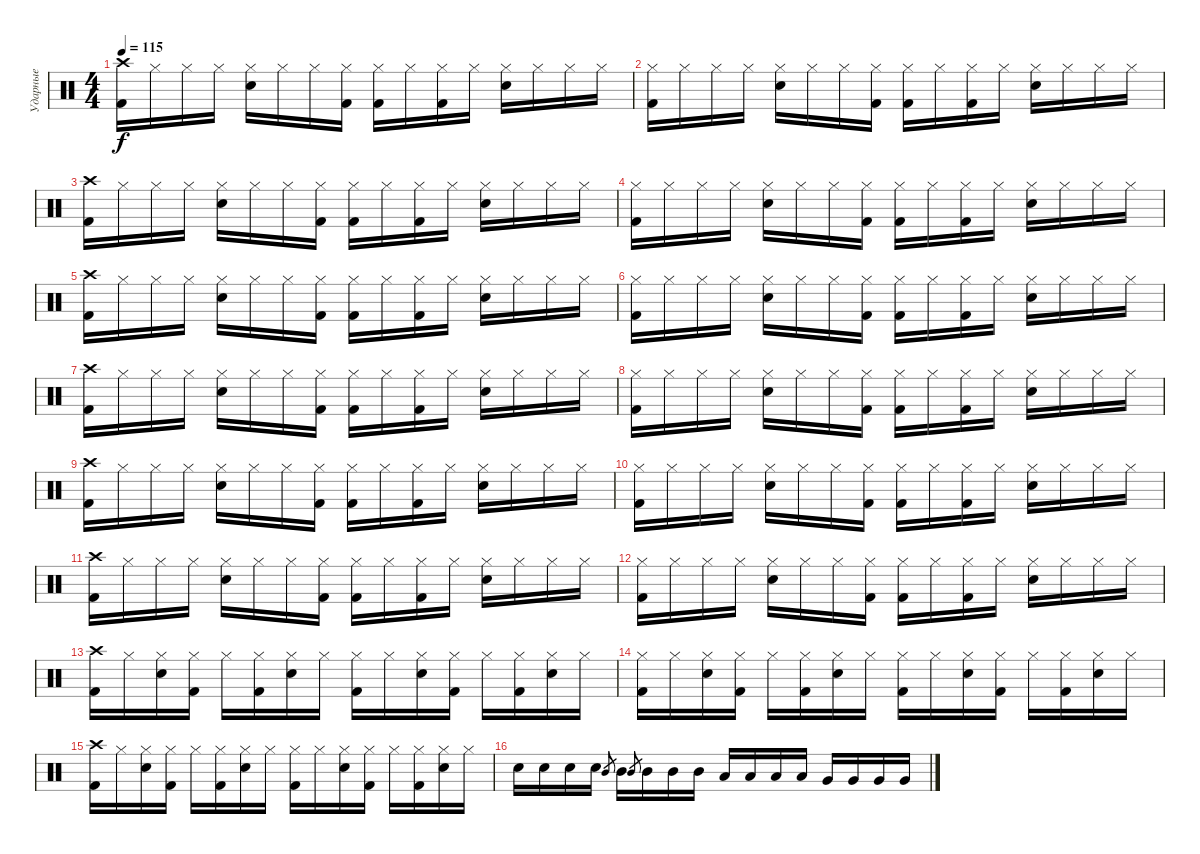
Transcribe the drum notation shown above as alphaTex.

\track ("Ударные" "Ударные") {instrument percussion}
\staff {score}
\articulation defaults
\ts (4 4)
\tempo 115
\clef neutral
\ks c
("Kick (hit) 2" "Crash high (hit)").16{dy f} "Hi-Hat (closed)".16 "Hi-Hat (closed)".16 "Hi-Hat (closed)".16 ("Electric Snare (hit)" "Hi-Hat (closed)").16 "Hi-Hat (closed)".16 "Hi-Hat (closed)".16 ("Kick (hit) 2" "Hi-Hat (closed)").16 ("Kick (hit) 2" "Hi-Hat (closed)").16 "Hi-Hat (closed)".16 ("Kick (hit) 2" "Hi-Hat (closed)").16 "Hi-Hat (closed)".16 ("Electric Snare (hit)" "Hi-Hat (closed)").16 "Hi-Hat (closed)".16 "Hi-Hat (closed)".16 "Hi-Hat (closed)".16 |
("Kick (hit) 2" "Hi-Hat (closed)").16 "Hi-Hat (closed)".16 "Hi-Hat (closed)".16 "Hi-Hat (closed)".16 ("Electric Snare (hit)" "Hi-Hat (closed)").16 "Hi-Hat (closed)".16 "Hi-Hat (closed)".16 ("Kick (hit) 2" "Hi-Hat (closed)").16 ("Kick (hit) 2" "Hi-Hat (closed)").16 "Hi-Hat (closed)".16 ("Kick (hit) 2" "Hi-Hat (closed)").16 "Hi-Hat (closed)".16 ("Electric Snare (hit)" "Hi-Hat (closed)").16 "Hi-Hat (closed)".16 "Hi-Hat (closed)".16 "Hi-Hat (closed)".16 |
("Kick (hit) 2" "Crash high (hit)").16 "Hi-Hat (closed)".16 "Hi-Hat (closed)".16 "Hi-Hat (closed)".16 ("Electric Snare (hit)" "Hi-Hat (closed)").16 "Hi-Hat (closed)".16 "Hi-Hat (closed)".16 ("Kick (hit) 2" "Hi-Hat (closed)").16 ("Kick (hit) 2" "Hi-Hat (closed)").16 "Hi-Hat (closed)".16 ("Kick (hit) 2" "Hi-Hat (closed)").16 "Hi-Hat (closed)".16 ("Electric Snare (hit)" "Hi-Hat (closed)").16 "Hi-Hat (closed)".16 "Hi-Hat (closed)".16 "Hi-Hat (closed)".16 |
("Kick (hit) 2" "Hi-Hat (closed)").16 "Hi-Hat (closed)".16 "Hi-Hat (closed)".16 "Hi-Hat (closed)".16 ("Electric Snare (hit)" "Hi-Hat (closed)").16 "Hi-Hat (closed)".16 "Hi-Hat (closed)".16 ("Kick (hit) 2" "Hi-Hat (closed)").16 ("Kick (hit) 2" "Hi-Hat (closed)").16 "Hi-Hat (closed)".16 ("Kick (hit) 2" "Hi-Hat (closed)").16 "Hi-Hat (closed)".16 ("Electric Snare (hit)" "Hi-Hat (closed)").16 "Hi-Hat (closed)".16 "Hi-Hat (closed)".16 "Hi-Hat (closed)".16 |
("Kick (hit) 2" "Crash high (hit)").16 "Hi-Hat (closed)".16 "Hi-Hat (closed)".16 "Hi-Hat (closed)".16 ("Electric Snare (hit)" "Hi-Hat (closed)").16 "Hi-Hat (closed)".16 "Hi-Hat (closed)".16 ("Kick (hit) 2" "Hi-Hat (closed)").16 ("Kick (hit) 2" "Hi-Hat (closed)").16 "Hi-Hat (closed)".16 ("Kick (hit) 2" "Hi-Hat (closed)").16 "Hi-Hat (closed)".16 ("Electric Snare (hit)" "Hi-Hat (closed)").16 "Hi-Hat (closed)".16 "Hi-Hat (closed)".16 "Hi-Hat (closed)".16 |
("Kick (hit) 2" "Hi-Hat (closed)").16 "Hi-Hat (closed)".16 "Hi-Hat (closed)".16 "Hi-Hat (closed)".16 ("Electric Snare (hit)" "Hi-Hat (closed)").16 "Hi-Hat (closed)".16 "Hi-Hat (closed)".16 ("Kick (hit) 2" "Hi-Hat (closed)").16 ("Kick (hit) 2" "Hi-Hat (closed)").16 "Hi-Hat (closed)".16 ("Kick (hit) 2" "Hi-Hat (closed)").16 "Hi-Hat (closed)".16 ("Electric Snare (hit)" "Hi-Hat (closed)").16 "Hi-Hat (closed)".16 "Hi-Hat (closed)".16 "Hi-Hat (closed)".16 |
("Kick (hit) 2" "Crash high (hit)").16 "Hi-Hat (closed)".16 "Hi-Hat (closed)".16 "Hi-Hat (closed)".16 ("Electric Snare (hit)" "Hi-Hat (closed)").16 "Hi-Hat (closed)".16 "Hi-Hat (closed)".16 ("Kick (hit) 2" "Hi-Hat (closed)").16 ("Kick (hit) 2" "Hi-Hat (closed)").16 "Hi-Hat (closed)".16 ("Kick (hit) 2" "Hi-Hat (closed)").16 "Hi-Hat (closed)".16 ("Electric Snare (hit)" "Hi-Hat (closed)").16 "Hi-Hat (closed)".16 "Hi-Hat (closed)".16 "Hi-Hat (closed)".16 |
("Kick (hit) 2" "Hi-Hat (closed)").16 "Hi-Hat (closed)".16 "Hi-Hat (closed)".16 "Hi-Hat (closed)".16 ("Electric Snare (hit)" "Hi-Hat (closed)").16 "Hi-Hat (closed)".16 "Hi-Hat (closed)".16 ("Kick (hit) 2" "Hi-Hat (closed)").16 ("Kick (hit) 2" "Hi-Hat (closed)").16 "Hi-Hat (closed)".16 ("Kick (hit) 2" "Hi-Hat (closed)").16 "Hi-Hat (closed)".16 ("Electric Snare (hit)" "Hi-Hat (closed)").16 "Hi-Hat (closed)".16 "Hi-Hat (closed)".16 "Hi-Hat (closed)".16 |
("Kick (hit) 2" "Crash high (hit)").16 "Hi-Hat (closed)".16 "Hi-Hat (closed)".16 "Hi-Hat (closed)".16 ("Electric Snare (hit)" "Hi-Hat (closed)").16 "Hi-Hat (closed)".16 "Hi-Hat (closed)".16 ("Kick (hit) 2" "Hi-Hat (closed)").16 ("Kick (hit) 2" "Hi-Hat (closed)").16 "Hi-Hat (closed)".16 ("Kick (hit) 2" "Hi-Hat (closed)").16 "Hi-Hat (closed)".16 ("Electric Snare (hit)" "Hi-Hat (closed)").16 "Hi-Hat (closed)".16 "Hi-Hat (closed)".16 "Hi-Hat (closed)".16 |
("Kick (hit) 2" "Hi-Hat (closed)").16 "Hi-Hat (closed)".16 "Hi-Hat (closed)".16 "Hi-Hat (closed)".16 ("Electric Snare (hit)" "Hi-Hat (closed)").16 "Hi-Hat (closed)".16 "Hi-Hat (closed)".16 ("Kick (hit) 2" "Hi-Hat (closed)").16 ("Kick (hit) 2" "Hi-Hat (closed)").16 "Hi-Hat (closed)".16 ("Kick (hit) 2" "Hi-Hat (closed)").16 "Hi-Hat (closed)".16 ("Electric Snare (hit)" "Hi-Hat (closed)").16 "Hi-Hat (closed)".16 "Hi-Hat (closed)".16 "Hi-Hat (closed)".16 |
("Kick (hit) 2" "Crash high (hit)").16 "Hi-Hat (closed)".16 "Hi-Hat (closed)".16 "Hi-Hat (closed)".16 ("Electric Snare (hit)" "Hi-Hat (closed)").16 "Hi-Hat (closed)".16 "Hi-Hat (closed)".16 ("Kick (hit) 2" "Hi-Hat (closed)").16 ("Kick (hit) 2" "Hi-Hat (closed)").16 "Hi-Hat (closed)".16 ("Kick (hit) 2" "Hi-Hat (closed)").16 "Hi-Hat (closed)".16 ("Electric Snare (hit)" "Hi-Hat (closed)").16 "Hi-Hat (closed)".16 "Hi-Hat (closed)".16 "Hi-Hat (closed)".16 |
("Kick (hit) 2" "Hi-Hat (closed)").16 "Hi-Hat (closed)".16 "Hi-Hat (closed)".16 "Hi-Hat (closed)".16 ("Electric Snare (hit)" "Hi-Hat (closed)").16 "Hi-Hat (closed)".16 "Hi-Hat (closed)".16 ("Kick (hit) 2" "Hi-Hat (closed)").16 ("Kick (hit) 2" "Hi-Hat (closed)").16 "Hi-Hat (closed)".16 ("Kick (hit) 2" "Hi-Hat (closed)").16 "Hi-Hat (closed)".16 ("Electric Snare (hit)" "Hi-Hat (closed)").16 "Hi-Hat (closed)".16 "Hi-Hat (closed)".16 "Hi-Hat (closed)".16 |
("Kick (hit) 2" "Crash high (hit)").16 "Hi-Hat (closed)".16 ("Electric Snare (hit)" "Hi-Hat (closed)").16 ("Kick (hit) 2" "Hi-Hat (closed)").16 "Hi-Hat (closed)".16 ("Kick (hit) 2" "Hi-Hat (closed)").16 ("Electric Snare (hit)" "Hi-Hat (closed)").16 "Hi-Hat (closed)".16 ("Kick (hit) 2" "Hi-Hat (closed)").16 "Hi-Hat (closed)".16 ("Electric Snare (hit)" "Hi-Hat (closed)").16 ("Kick (hit) 2" "Hi-Hat (closed)").16 "Hi-Hat (closed)".16 ("Kick (hit) 2" "Hi-Hat (closed)").16 ("Electric Snare (hit)" "Hi-Hat (closed)").16 "Hi-Hat (closed)".16 |
("Kick (hit) 2" "Hi-Hat (closed)").16 "Hi-Hat (closed)".16 ("Electric Snare (hit)" "Hi-Hat (closed)").16 ("Kick (hit) 2" "Hi-Hat (closed)").16 "Hi-Hat (closed)".16 ("Kick (hit) 2" "Hi-Hat (closed)").16 ("Electric Snare (hit)" "Hi-Hat (closed)").16 "Hi-Hat (closed)".16 ("Kick (hit) 2" "Hi-Hat (closed)").16 "Hi-Hat (closed)".16 ("Electric Snare (hit)" "Hi-Hat (closed)").16 ("Kick (hit) 2" "Hi-Hat (closed)").16 "Hi-Hat (closed)".16 ("Kick (hit) 2" "Hi-Hat (closed)").16 ("Electric Snare (hit)" "Hi-Hat (closed)").16 "Hi-Hat (closed)".16 |
("Kick (hit) 2" "Crash high (hit)").16 "Hi-Hat (closed)".16 ("Electric Snare (hit)" "Hi-Hat (closed)").16 ("Kick (hit) 2" "Hi-Hat (closed)").16 "Hi-Hat (closed)".16 ("Kick (hit) 2" "Hi-Hat (closed)").16 ("Electric Snare (hit)" "Hi-Hat (closed)").16 "Hi-Hat (closed)".16 ("Kick (hit) 2" "Hi-Hat (closed)").16 "Hi-Hat (closed)".16 ("Electric Snare (hit)" "Hi-Hat (closed)").16 ("Kick (hit) 2" "Hi-Hat (closed)").16 "Hi-Hat (closed)".16 ("Kick (hit) 2" "Hi-Hat (closed)").16 ("Electric Snare (hit)" "Hi-Hat (closed)").16 "Hi-Hat (closed)".16 |
"Electric Snare (hit)".16 "Electric Snare (hit)".16 "Electric Snare (hit)".16 "Electric Snare (hit)".16 "Mid Tom (hit)".8{gr} "Mid Tom (hit)".16 "Mid Tom (hit)".8{gr} "Mid Tom (hit)".16 "Mid Tom (hit)".16 "Mid Tom (hit)".16 "Low Tom (hit)".16 "Low Tom (hit)".16 "Low Tom (hit)".16 "Low Tom (hit)".16 "Very Low Tom (hit)".16 "Very Low Tom (hit)".16 "Very Low Tom (hit)".16 "Very Low Tom (hit)".16
